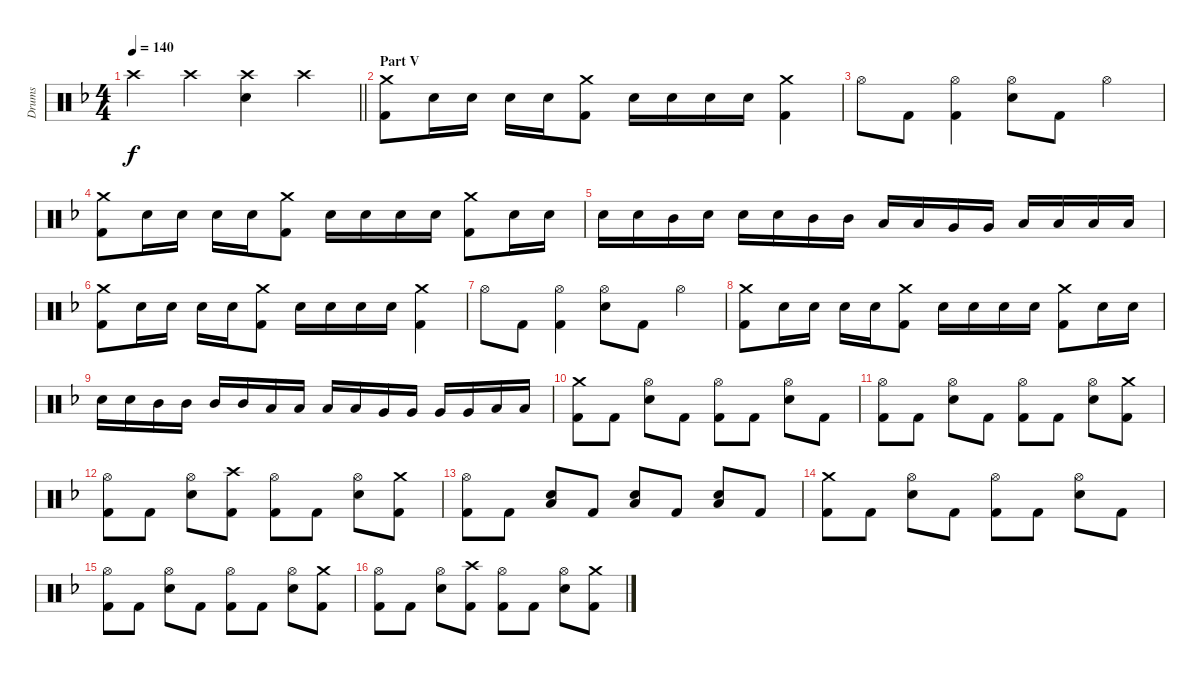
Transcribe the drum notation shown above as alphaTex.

\track ("Drums" "Drums") {instrument percussion}
\staff {score}
\articulation defaults
\ts (4 4)
\tempo 140
\clef neutral
\barLineRight lightlight
\ks dminor "Crash high (hit)".4{dy f} "Crash high (hit)".4
("Crash high (hit)" "Electric Snare (hit)").4 "Crash high (hit)".4 |
\section ("" "Part V")
("Kick (hit) 2" "Crash medium (hit)").8 "Electric Snare (hit)".16 "Electric Snare (hit)".16 "Electric Snare (hit)".16 "Electric Snare (hit)".16 ("Kick (hit) 2" "Crash medium (hit)").8 "Electric Snare (hit)".16 "Electric Snare (hit)".16 "Electric Snare (hit)".16 "Electric Snare (hit)".16 ("Kick (hit) 2" "Crash medium (hit)").4 |
"Hi-Hat (open)".8 "Kick (hit) 2".8 ("Kick (hit) 2" "Hi-Hat (open)").4 ("Electric Snare (hit)" "Hi-Hat (open)").8 "Kick (hit) 2".8 "Hi-Hat (open)".4 |
("Kick (hit) 2" "Crash medium (hit)").8 "Electric Snare (hit)".16 "Electric Snare (hit)".16 "Electric Snare (hit)".16 "Electric Snare (hit)".16 ("Kick (hit) 2" "Crash medium (hit)").8 "Electric Snare (hit)".16 "Electric Snare (hit)".16 "Electric Snare (hit)".16 "Electric Snare (hit)".16 ("Kick (hit) 2" "Crash medium (hit)").8 "Electric Snare (hit)".16 "Electric Snare (hit)".16 |
"Electric Snare (hit)".16 "Electric Snare (hit)".16 "Mid Tom (hit)".16 "Electric Snare (hit)".16 "Electric Snare (hit)".16 "Electric Snare (hit)".16 "Mid Tom (hit)".16 "Mid Tom (hit)".16 "Low Tom (hit)".16 "Low Tom (hit)".16 "Very Low Tom (hit)".16 "Very Low Tom (hit)".16 "Low Floor Tom (hit)".16 "Low Floor Tom (hit)".16 "Low Floor Tom (hit)".16 "Low Floor Tom (hit)".16 |
("Kick (hit) 2" "Crash medium (hit)").8 "Electric Snare (hit)".16 "Electric Snare (hit)".16 "Electric Snare (hit)".16 "Electric Snare (hit)".16 ("Kick (hit) 2" "Crash medium (hit)").8 "Electric Snare (hit)".16 "Electric Snare (hit)".16 "Electric Snare (hit)".16 "Electric Snare (hit)".16 ("Kick (hit) 2" "Crash medium (hit)").4 |
"Hi-Hat (open)".8 "Kick (hit) 2".8 ("Kick (hit) 2" "Hi-Hat (open)").4 ("Electric Snare (hit)" "Hi-Hat (open)").8 "Kick (hit) 2".8 "Hi-Hat (open)".4 |
("Kick (hit) 2" "Crash medium (hit)").8 "Electric Snare (hit)".16 "Electric Snare (hit)".16 "Electric Snare (hit)".16 "Electric Snare (hit)".16 ("Kick (hit) 2" "Crash medium (hit)").8 "Electric Snare (hit)".16 "Electric Snare (hit)".16 "Electric Snare (hit)".16 "Electric Snare (hit)".16 ("Kick (hit) 2" "Crash medium (hit)").8 "Electric Snare (hit)".16 "Electric Snare (hit)".16 |
"Electric Snare (hit)".16 "Electric Snare (hit)".16 "Mid Tom (hit)".16 "Mid Tom (hit)".16 "Mid Tom (hit)".16 "Mid Tom (hit)".16 "Low Tom (hit)".16 "Low Tom (hit)".16 "Low Tom (hit)".16 "Low Tom (hit)".16 "Very Low Tom (hit)".16 "Very Low Tom (hit)".16 "Very Low Tom (hit)".16 "Very Low Tom (hit)".16 "Low Floor Tom (hit)".16 "Low Floor Tom (hit)".16 |
("Kick (hit) 2" "Crash medium (hit)").8 "Kick (hit) 2".8 ("Hi-Hat (open)" "Electric Snare (hit)").8 "Kick (hit) 2".8 ("Hi-Hat (open)" "Kick (hit) 2").8 "Kick (hit) 2".8 ("Hi-Hat (open)" "Electric Snare (hit)").8 "Kick (hit) 2".8 |
("Kick (hit) 2" "Hi-Hat (open)").8 "Kick (hit) 2".8 ("Hi-Hat (open)" "Electric Snare (hit)").8 "Kick (hit) 2".8 ("Hi-Hat (open)" "Kick (hit) 2").8 "Kick (hit) 2".8 ("Hi-Hat (open)" "Electric Snare (hit)").8 ("Crash medium (hit)" "Kick (hit) 2").8 |
("Kick (hit) 2" "Hi-Hat (open)").8 "Kick (hit) 2".8 ("Hi-Hat (open)" "Electric Snare (hit)").8 ("Crash high (hit)" "Kick (hit) 2").8 ("Hi-Hat (open)" "Kick (hit) 2").8 "Kick (hit) 2".8 ("Hi-Hat (open)" "Electric Snare (hit)").8 ("Crash medium (hit)" "Kick (hit) 2").8 |
("Kick (hit) 2" "Hi-Hat (open)").8 "Kick (hit) 2".8 ("Electric Snare (hit)" "Low Floor Tom (hit)").8 "Kick (hit) 2".8 ("Electric Snare (hit)" "Low Floor Tom (hit)").8 "Kick (hit) 2".8 ("Electric Snare (hit)" "Low Floor Tom (hit)").8 "Kick (hit) 2".8 |
("Kick (hit) 2" "Crash medium (hit)").8 "Kick (hit) 2".8 ("Hi-Hat (open)" "Electric Snare (hit)").8 "Kick (hit) 2".8 ("Hi-Hat (open)" "Kick (hit) 2").8 "Kick (hit) 2".8 ("Hi-Hat (open)" "Electric Snare (hit)").8 "Kick (hit) 2".8 |
("Kick (hit) 2" "Hi-Hat (open)").8 "Kick (hit) 2".8 ("Hi-Hat (open)" "Electric Snare (hit)").8 "Kick (hit) 2".8 ("Hi-Hat (open)" "Kick (hit) 2").8 "Kick (hit) 2".8 ("Hi-Hat (open)" "Electric Snare (hit)").8 ("Crash medium (hit)" "Kick (hit) 2").8 |
("Kick (hit) 2" "Hi-Hat (open)").8 "Kick (hit) 2".8 ("Hi-Hat (open)" "Electric Snare (hit)").8 ("Crash high (hit)" "Kick (hit) 2").8 ("Hi-Hat (open)" "Kick (hit) 2").8 "Kick (hit) 2".8 ("Hi-Hat (open)" "Electric Snare (hit)").8 ("Crash medium (hit)" "Kick (hit) 2").8
